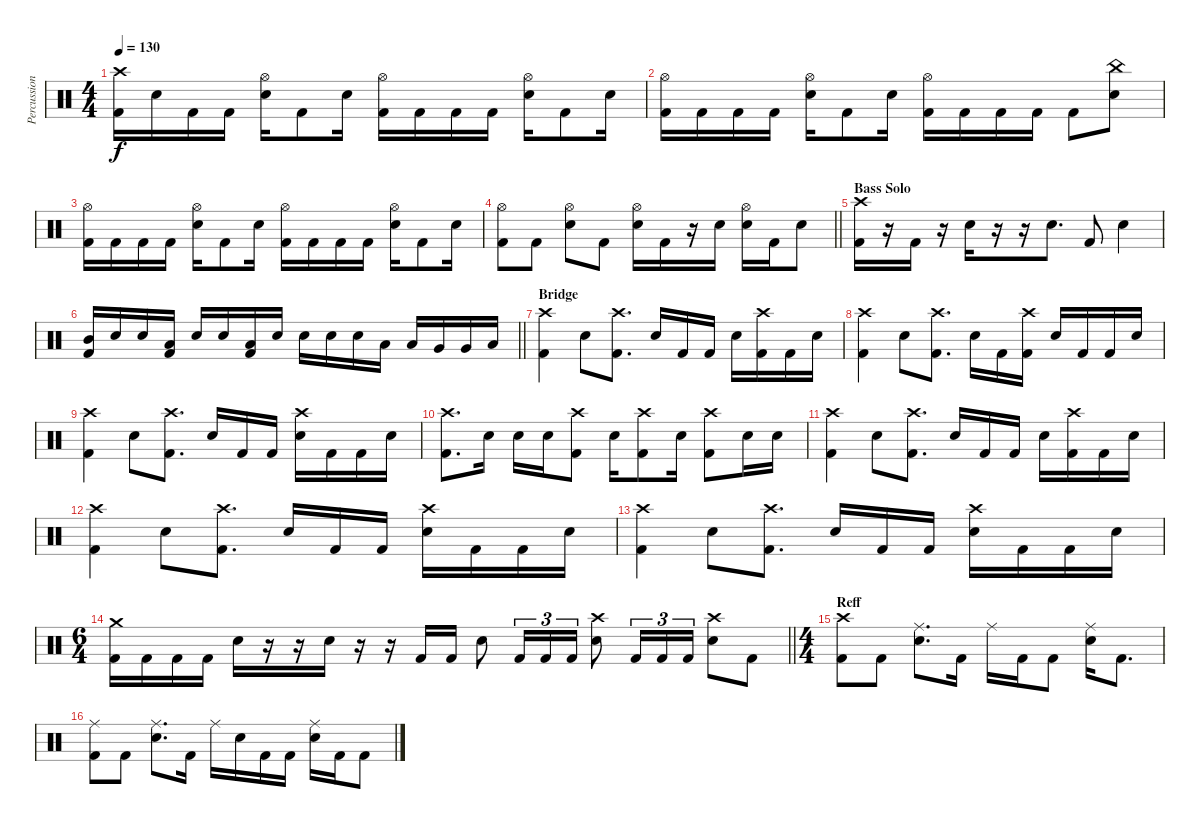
\track ("Percussion" "Percussion") {instrument percussion}
\staff {score}
\articulation defaults
\ts (4 4)
\tempo 130
\clef neutral
\ks c
("Kick (hit) 2" "Crash high (hit)").16{dy f} "Snare (hit) 2".16 "Kick (hit) 2".16 "Kick (hit) 2".16 ("Snare (hit) 2" "Hi-Hat (open)").16 "Kick (hit) 2".8 "Snare (hit) 2".16 ("Kick (hit) 2" "Hi-Hat (open)").16 "Kick (hit) 2".16 "Kick (hit) 2".16 "Kick (hit) 2".16 ("Snare (hit) 2" "Hi-Hat (open)").16 "Kick (hit) 2".8 "Snare (hit) 2".16 |
("Kick (hit) 2" "Hi-Hat (open)").16 "Kick (hit) 2".16 "Kick (hit) 2".16 "Kick (hit) 2".16 ("Snare (hit) 2" "Hi-Hat (open)").16 "Kick (hit) 2".8 "Snare (hit) 2".16 ("Kick (hit) 2" "Hi-Hat (open)").16 "Kick (hit) 2".16 "Kick (hit) 2".16 "Kick (hit) 2".16 "Kick (hit) 2".8 ("Snare (hit) 2" "China (hit)").8 |
("Kick (hit) 2" "Hi-Hat (open)").16 "Kick (hit) 2".16 "Kick (hit) 2".16 "Kick (hit) 2".16 ("Snare (hit) 2" "Hi-Hat (open)").16 "Kick (hit) 2".8 "Snare (hit) 2".16 ("Kick (hit) 2" "Hi-Hat (open)").16 "Kick (hit) 2".16 "Kick (hit) 2".16 "Kick (hit) 2".16 ("Snare (hit) 2" "Hi-Hat (open)").16 "Kick (hit) 2".8 "Snare (hit) 2".16 |
\barLineRight lightlight
("Kick (hit) 2" "Hi-Hat (open)").8 "Kick (hit) 2".8 ("Snare (hit) 2" "Hi-Hat (open)").8 "Kick (hit) 2".8 ("Snare (hit) 2" "Hi-Hat (open)").16 "Kick (hit) 2".16 r.16 "Snare (hit) 2".16 ("Snare (hit) 2" "Hi-Hat (open)").16 "Kick (hit) 2".16 "Snare (hit) 2".8 |
\section ("" "Bass Solo")
("Kick (hit) 2" "Crash high (hit)").16 r.16 "Kick (hit) 2".16 r.16 "Snare (hit) 2".16 r.16 r.16 "Snare (hit) 2".8{d} "Kick (hit) 2".8 "Snare (hit) 2".4 |
\barLineRight lightlight
("Kick (hit) 2" "Mid Tom (hit)").16 "Snare (hit) 2".16 "Snare (hit) 2".16 ("Kick (hit) 2" "Low Tom (hit)").16 "Snare (hit) 2".16 "Snare (hit) 2".16 ("Kick (hit) 2" "Low Tom (hit)").16 "Snare (hit) 2".16 "Snare (hit) 2".16 "Snare (hit) 2".16 "Snare (hit) 2".16 "Low Tom (hit)".16 "Low Tom (hit)".16 "Very Low Tom (hit)".16 "Very Low Tom (hit)".16 "Low Floor Tom (hit)".16 |
\section ("" "Bridge")
("Kick (hit) 2" "Crash high (hit)").4 "Snare (hit) 2".8 ("Kick (hit) 2" "Crash high (hit)").8{d} "Snare (hit) 2".16 "Kick (hit) 2".16 "Kick (hit) 2".16 "Snare (hit) 2".16 ("Kick (hit) 2" "Crash high (hit)").16 "Kick (hit) 2".16 "Snare (hit) 2".16 |
("Kick (hit) 2" "Crash high (hit)").4 "Snare (hit) 2".8 ("Kick (hit) 2" "Crash high (hit)").8{d} "Snare (hit) 2".16 "Kick (hit) 2".16 ("Kick (hit) 2" "Crash high (hit)").16 "Snare (hit) 2".16 "Kick (hit) 2".16 "Kick (hit) 2".16 "Snare (hit) 2".16 |
("Kick (hit) 2" "Crash high (hit)").4 "Snare (hit) 2".8 ("Kick (hit) 2" "Crash high (hit)").8{d} "Snare (hit) 2".16 "Kick (hit) 2".16 "Kick (hit) 2".16 ("Snare (hit) 2" "Crash high (hit)").16 "Kick (hit) 2".16 "Kick (hit) 2".16 "Snare (hit) 2".16 |
("Kick (hit) 2" "Crash high (hit)").8{d} "Snare (hit) 2".16 "Snare (hit) 2".16 "Snare (hit) 2".16 ("Kick (hit) 2" "Crash high (hit)").8 "Snare (hit) 2".16 ("Kick (hit) 2" "Crash high (hit)").8 "Snare (hit) 2".16 ("Kick (hit) 2" "Crash high (hit)").8 "Snare (hit) 2".16 "Snare (hit) 2".16 |
("Kick (hit) 2" "Crash high (hit)").4 "Snare (hit) 2".8 ("Kick (hit) 2" "Crash high (hit)").8{d} "Snare (hit) 2".16 "Kick (hit) 2".16 "Kick (hit) 2".16 "Snare (hit) 2".16 ("Kick (hit) 2" "Crash high (hit)").16 "Kick (hit) 2".16 "Snare (hit) 2".16 |
("Kick (hit) 2" "Crash high (hit)").4 "Snare (hit) 2".8 ("Kick (hit) 2" "Crash high (hit)").8{d} "Snare (hit) 2".16 "Kick (hit) 2".16 "Kick (hit) 2".16 ("Snare (hit) 2" "Crash high (hit)").16 "Kick (hit) 2".16 "Kick (hit) 2".16 "Snare (hit) 2".16 |
("Kick (hit) 2" "Crash high (hit)").4 "Snare (hit) 2".8 ("Kick (hit) 2" "Crash high (hit)").8{d} "Snare (hit) 2".16 "Kick (hit) 2".16 "Kick (hit) 2".16 ("Snare (hit) 2" "Crash high (hit)").16 "Kick (hit) 2".16 "Kick (hit) 2".16 "Snare (hit) 2".16 |
\ts (6 4)
\barLineRight lightlight
("Kick (hit) 2" "Crash medium (hit)").16 "Kick (hit) 2".16 "Kick (hit) 2".16 "Kick (hit) 2".16 "Snare (hit) 2".16 r.16 r.16 "Snare (hit) 2".16 r.16 r.16 "Kick (hit) 2".16 "Kick (hit) 2".16 "Snare (hit) 2".8 "Kick (hit) 2".16{tu (3 2)} "Kick (hit) 2".16{tu (3 2)} "Kick (hit) 2".16{tu (3 2)} ("Snare (hit) 2" "Crash high (hit)").8 "Kick (hit) 2".16{tu (3 2)} "Kick (hit) 2".16{tu (3 2)} "Kick (hit) 2".16{tu (3 2)} ("Snare (hit) 2" "Crash high (hit)").8 "Kick (hit) 2".8 |
\ts (4 4)
\section ("" "Reff")
("Kick (hit) 2" "Crash high (hit)").8 "Kick (hit) 2".8 ("Snare (hit) 2" "Ride (middle)").8{d} "Kick (hit) 2".16 "Ride (middle)".16 "Kick (hit) 2".16 "Kick (hit) 2".8 ("Snare (hit) 2" "Ride (middle)").16 "Kick (hit) 2".8{d} |
("Kick (hit) 2" "Ride (middle)").8 "Kick (hit) 2".8 ("Snare (hit) 2" "Ride (middle)").8{d} "Kick (hit) 2".16 "Ride (middle)".16 "Snare (hit) 2".16 "Kick (hit) 2".16 "Kick (hit) 2".16 ("Snare (hit) 2" "Ride (middle)").16 "Kick (hit) 2".16 "Kick (hit) 2".8
